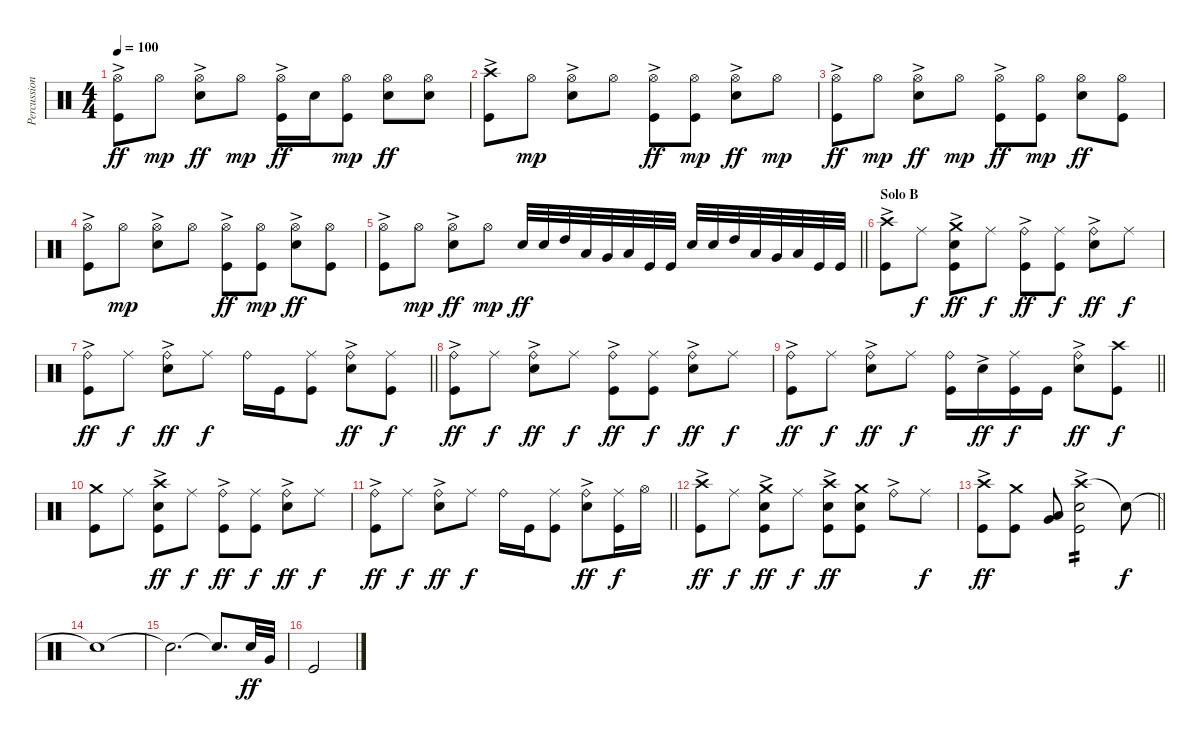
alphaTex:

\track ("Percussions" "Percussion") {instrument percussion}
\staff {score}
\articulation defaults
\ts (4 4)
\tempo 100
\clef neutral
\ks c
("Hi-Hat (open)"{ac} "Kick (hit)").8{dy ff} "Hi-Hat (open)".8{dy mp} ("Hi-Hat (open)"{ac} "Snare (hit) 2").8{dy ff} "Hi-Hat (open)".8{dy mp} ("Hi-Hat (open)"{ac} "Kick (hit)").16{dy ff} "Snare (hit) 2".16 ("Hi-Hat (open)" "Kick (hit)").8{dy mp} ("Hi-Hat (open)" "Snare (hit) 2").8{dy ff} ("Hi-Hat (open)" "Snare (hit) 2").8 |
("Crash high (hit)"{ac} "Kick (hit)").8 "Hi-Hat (open)".8{dy mp} ("Hi-Hat (open)"{ac} "Snare (hit) 2").8 "Hi-Hat (open)".8 ("Hi-Hat (open)"{ac} "Kick (hit)").8{dy ff} ("Hi-Hat (open)" "Kick (hit)").8{dy mp} ("Hi-Hat (open)"{ac} "Snare (hit) 2").8{dy ff} "Hi-Hat (open)".8{dy mp} |
("Hi-Hat (open)"{ac} "Kick (hit)").8{dy ff} "Hi-Hat (open)".8{dy mp} ("Hi-Hat (open)"{ac} "Snare (hit) 2").8{dy ff} "Hi-Hat (open)".8{dy mp} ("Hi-Hat (open)"{ac} "Kick (hit)").8{dy ff} ("Hi-Hat (open)" "Kick (hit)").8{dy mp} ("Hi-Hat (open)" "Snare (hit) 2").8{dy ff} ("Hi-Hat (open)" "Kick (hit)").8 |
("Hi-Hat (open)"{ac} "Kick (hit)").8 "Hi-Hat (open)".8{dy mp} ("Hi-Hat (open)"{ac} "Snare (hit) 2").8 "Hi-Hat (open)".8 ("Hi-Hat (open)"{ac} "Kick (hit)").8{dy ff} ("Hi-Hat (open)" "Kick (hit)").8{dy mp} ("Hi-Hat (open)"{ac} "Snare (hit) 2").8{dy ff} ("Hi-Hat (open)" "Kick (hit)").8 |
\barLineRight lightlight
("Hi-Hat (open)"{ac} "Kick (hit)").8 "Hi-Hat (open)".8{dy mp} ("Hi-Hat (open)"{ac} "Snare (hit) 2").8{dy ff} "Hi-Hat (open)".8{dy mp} "Snare (hit) 2".32{dy ff} "Snare (hit) 2".32 "High Tom (hit)".32 "Low Tom (hit)".32 "Very Low Tom (hit)".32 "Low Floor Tom (hit)".32 "Kick (hit)".32 "Kick (hit)".32 "Snare (hit) 2".32 "Snare (hit) 2".32 "High Tom (hit)".32 "Low Tom (hit)".32 "Very Low Tom (hit)".32 "Low Floor Tom (hit)".32 "Kick (hit)".32 "Kick (hit)".32 |
\section ("" "Solo B")
("Crash high (hit)"{ac} "Kick (hit)").8 "Ride (middle)".8{dy f} ("Crash medium (hit)"{ac} "Snare (hit) 2"{ac} "Kick (hit)").8{dy ff} "Ride (middle)".8{dy f} ("Ride (bell)"{ac} "Kick (hit)").8{dy ff} ("Ride (middle)" "Kick (hit)").8{dy f} ("Ride (bell)"{ac} "Snare (hit) 2"{ac}).8{dy ff} "Ride (middle)".8{dy f} |
\barLineRight lightlight
("Ride (bell)"{ac} "Kick (hit)").8{dy ff} "Ride (middle)".8{dy f} ("Ride (bell)"{ac} "Snare (hit) 2").8{dy ff} "Ride (middle)".8{dy f} "Ride (bell)".16 "Kick (hit)".16 ("Ride (middle)" "Kick (hit)").8 ("Ride (bell)" "Snare (hit) 2"{ac}).8{dy ff} ("Ride (middle)" "Kick (hit)").8{dy f} |
("Ride (bell)"{ac} "Kick (hit)").8{dy ff} "Ride (middle)".8{dy f} ("Ride (bell)"{ac} "Snare (hit) 2"{ac}).8{dy ff} "Ride (middle)".8{dy f} ("Ride (bell)"{ac} "Kick (hit)").8{dy ff} ("Ride (middle)" "Kick (hit)").8{dy f} ("Ride (bell)"{ac} "Snare (hit) 2"{ac}).8{dy ff} "Ride (middle)".8{dy f} |
\barLineRight lightlight
("Ride (bell)"{ac} "Kick (hit)").8{dy ff} "Ride (middle)".8{dy f} ("Ride (bell)"{ac} "Snare (hit) 2").8{dy ff} "Ride (middle)".8{dy f} ("Ride (bell)" "Kick (hit)").16 "Snare (hit) 2"{ac}.16{dy ff} ("Ride (middle)" "Kick (hit)").16{dy f} "Kick (hit)".16 ("Ride (bell)" "Snare (hit) 2"{ac}).8{dy ff} ("Crash high (hit)" "Kick (hit)").8{dy f} |
("Crash medium (hit)" "Kick (hit)").8 "Ride (middle)".8 ("Crash high (hit)" "Snare (hit) 2"{ac} "Kick (hit)").8{dy ff} "Ride (middle)".8{dy f} ("Ride (bell)"{ac} "Kick (hit)").8{dy ff} ("Ride (middle)" "Kick (hit)").8{dy f} ("Ride (bell)"{ac} "Snare (hit) 2"{ac}).8{dy ff} "Ride (middle)".8{dy f} |
\barLineRight lightlight
("Ride (bell)"{ac} "Kick (hit)").8{dy ff} "Ride (middle)".8{dy f} ("Ride (bell)"{ac} "Snare (hit) 2").8{dy ff} "Ride (middle)".8{dy f} "Ride (bell)".16 "Kick (hit)".16 ("Ride (middle)" "Kick (hit)").8 ("Ride (bell)" "Snare (hit) 2"{ac}).8{dy ff} ("Ride (middle)" "Kick (hit)").16{dy f} "Hi-Hat (open)".16 |
("Crash high (hit)"{ac} "Kick (hit)").8{dy ff} "Ride (middle)".8{dy f} ("Crash medium (hit)"{ac} "Snare (hit) 2"{ac} "Kick (hit)").8{dy ff} "Ride (middle)".8{dy f} ("Crash high (hit)"{ac} "Snare (hit) 2" "Kick (hit)").8{dy ff} ("Crash medium (hit)" "Snare (hit) 2" "Kick (hit)").8 "Ride (bell)"{ac}.8 "Ride (middle)".8{dy f} |
\barLineRight lightlight
("Crash high (hit)"{ac} "Kick (hit)").8{dy ff} ("Crash medium (hit)" "Kick (hit)").8 ("Very Low Tom (hit)" "Low Floor Tom (hit)").8 ("Crash high (hit)"{ac} "Snare (hit) 2" "Kick (hit)").2{tp 2} "Snare (hit)"{t}.8{dy f} |
"Snare (hit)"{t}.1 |
"Snare (hit)"{t}.2{d} "Snare (hit)"{t}.8{d} "Snare (hit) 2".32{dy ff} "Very Low Tom (hit)".32 |
"Kick (hit)".2
